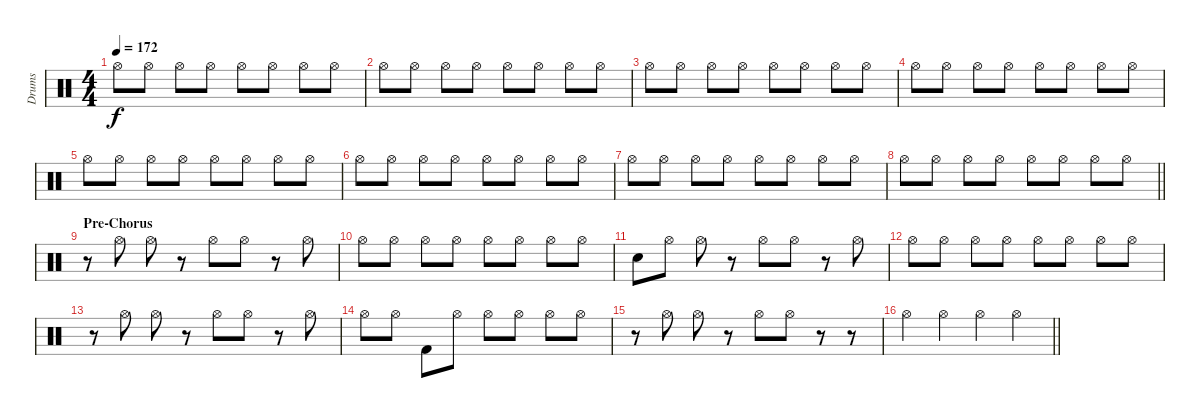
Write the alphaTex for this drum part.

\track ("Drums" "Drums") {instrument percussion}
\staff {score}
\articulation defaults
\ts (4 4)
\tempo 172
\clef neutral
\ks c "Hi-Hat (open)".8{dy f} "Hi-Hat (open)".8 "Hi-Hat (open)".8 "Hi-Hat (open)".8 "Hi-Hat (open)".8 "Hi-Hat (open)".8 "Hi-Hat (open)".8 "Hi-Hat (open)".8
|
"Hi-Hat (open)".8 "Hi-Hat (open)".8 "Hi-Hat (open)".8 "Hi-Hat (open)".8 "Hi-Hat (open)".8 "Hi-Hat (open)".8 "Hi-Hat (open)".8 "Hi-Hat (open)".8 |
"Hi-Hat (open)".8 "Hi-Hat (open)".8 "Hi-Hat (open)".8 "Hi-Hat (open)".8 "Hi-Hat (open)".8 "Hi-Hat (open)".8 "Hi-Hat (open)".8 "Hi-Hat (open)".8 |
"Hi-Hat (open)".8 "Hi-Hat (open)".8 "Hi-Hat (open)".8 "Hi-Hat (open)".8 "Hi-Hat (open)".8 "Hi-Hat (open)".8 "Hi-Hat (open)".8 "Hi-Hat (open)".8 |
"Hi-Hat (open)".8 "Hi-Hat (open)".8 "Hi-Hat (open)".8 "Hi-Hat (open)".8 "Hi-Hat (open)".8 "Hi-Hat (open)".8 "Hi-Hat (open)".8 "Hi-Hat (open)".8 |
"Hi-Hat (open)".8 "Hi-Hat (open)".8 "Hi-Hat (open)".8 "Hi-Hat (open)".8 "Hi-Hat (open)".8 "Hi-Hat (open)".8 "Hi-Hat (open)".8 "Hi-Hat (open)".8 |
"Hi-Hat (open)".8 "Hi-Hat (open)".8 "Hi-Hat (open)".8 "Hi-Hat (open)".8 "Hi-Hat (open)".8 "Hi-Hat (open)".8 "Hi-Hat (open)".8 "Hi-Hat (open)".8 |
\barLineRight lightlight "Hi-Hat (open)".8 "Hi-Hat (open)".8 "Hi-Hat (open)".8 "Hi-Hat (open)".8 "Hi-Hat (open)".8 "Hi-Hat (open)".8 "Hi-Hat (open)".8 "Hi-Hat (open)".8
|
\section ("" "Pre-Chorus")
r.8 "Hi-Hat (open)".8 "Hi-Hat (open)".8 r.8 "Hi-Hat (open)".8 "Hi-Hat (open)".8 r.8 "Hi-Hat (open)".8 |
"Hi-Hat (open)".8 "Hi-Hat (open)".8 "Hi-Hat (open)".8 "Hi-Hat (open)".8 "Hi-Hat (open)".8 "Hi-Hat (open)".8 "Hi-Hat (open)".8 "Hi-Hat (open)".8 |
"Snare (hit) 2".8 "Hi-Hat (open)".8 "Hi-Hat (open)".8 r.8 "Hi-Hat (open)".8 "Hi-Hat (open)".8 r.8 "Hi-Hat (open)".8 |
"Hi-Hat (open)".8 "Hi-Hat (open)".8 "Hi-Hat (open)".8 "Hi-Hat (open)".8 "Hi-Hat (open)".8 "Hi-Hat (open)".8 "Hi-Hat (open)".8 "Hi-Hat (open)".8 |
r.8 "Hi-Hat (open)".8 "Hi-Hat (open)".8 r.8 "Hi-Hat (open)".8 "Hi-Hat (open)".8 r.8 "Hi-Hat (open)".8 |
"Hi-Hat (open)".8 "Hi-Hat (open)".8 "Kick (hit) 2".8 "Hi-Hat (open)".8 "Hi-Hat (open)".8 "Hi-Hat (open)".8 "Hi-Hat (open)".8 "Hi-Hat (open)".8 |
r.8 "Hi-Hat (open)".8 "Hi-Hat (open)".8 r.8 "Hi-Hat (open)".8 "Hi-Hat (open)".8 r.8 r.8 |
\barLineRight lightlight "Hi-Hat (open)".4 "Hi-Hat (open)".4 "Hi-Hat (open)".4 "Hi-Hat (open)".4
